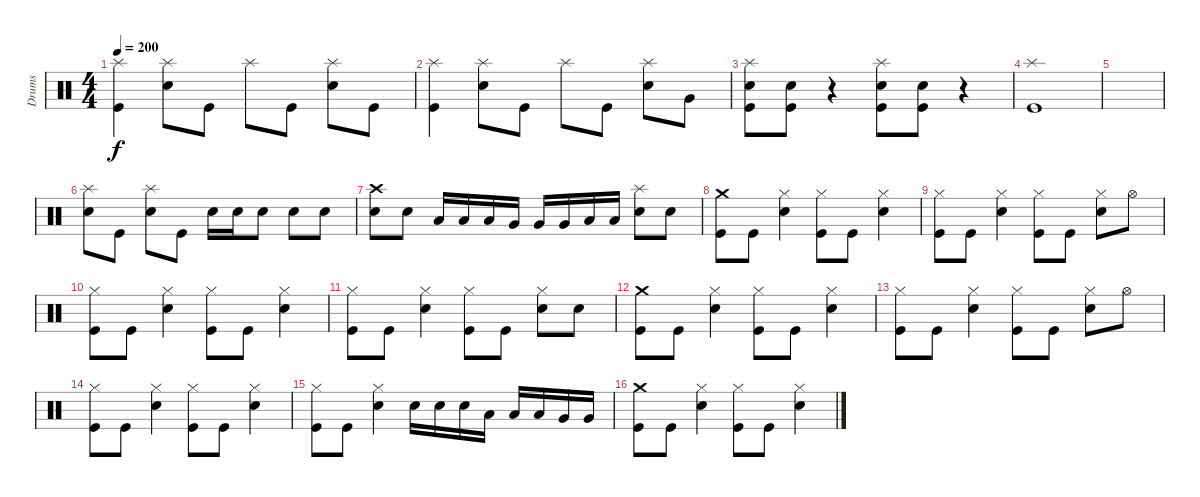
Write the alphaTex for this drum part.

\track ("Drums" "Drums") {instrument percussion}
\staff {score}
\articulation defaults
\ts (4 4)
\tempo 200
\clef neutral
\ks c
("Splash (hit)" "Kick (hit)").4{dy f} ("Splash (hit)" "Electric Snare (hit)").8 "Kick (hit)".8 "Splash (hit)".8 "Kick (hit)".8 ("Splash (hit)" "Electric Snare (hit)").8 "Kick (hit)".8 |
("Splash (hit)" "Kick (hit)").4 ("Splash (hit)" "Electric Snare (hit)").8 "Kick (hit)".8 "Splash (hit)".8 "Kick (hit)".8 ("Splash (hit)" "Electric Snare (hit)").8 "Very Low Tom (hit)".8 |
("Splash (hit)" "Electric Snare (hit)" "Kick (hit)").8 ("Electric Snare (hit)" "Kick (hit)").8 r.4 ("Splash (hit)" "Electric Snare (hit)" "Kick (hit)").8 ("Electric Snare (hit)" "Kick (hit)").8 r.4 |
("Splash (hit)" "Kick (hit)").1 |
|
("Splash (hit)" "Electric Snare (hit)").8 "Kick (hit)".8 ("Splash (hit)" "Electric Snare (hit)").8 "Kick (hit)".8 "Electric Snare (hit)".16 "Electric Snare (hit)".16 "Electric Snare (hit)".8 "Electric Snare (hit)".8 "Electric Snare (hit)".8 |
("Crash high (hit)" "Electric Snare (hit)").8 "Electric Snare (hit)".8 "Low Tom (hit)".16 "Low Tom (hit)".16 "Low Tom (hit)".16 "Very Low Tom (hit)".16 "Very Low Tom (hit)".16 "Very Low Tom (hit)".16 "Low Floor Tom (hit)".16 "Low Floor Tom (hit)".16 ("Splash (hit)" "Electric Snare (hit)").8 "Electric Snare (hit)".8 |
("Crash medium (hit)" "Kick (hit)").8 "Kick (hit)".8 ("Hi-Hat (closed)" "Electric Snare (hit)").4 ("Hi-Hat (closed)" "Kick (hit)").8 "Kick (hit)".8 ("Hi-Hat (closed)" "Electric Snare (hit)").4 |
("Hi-Hat (closed)" "Kick (hit)").8 "Kick (hit)".8 ("Hi-Hat (closed)" "Electric Snare (hit)").4 ("Hi-Hat (closed)" "Kick (hit)").8 "Kick (hit)".8 ("Hi-Hat (closed)" "Electric Snare (hit)").8 "Hi-Hat (open)".8 |
("Hi-Hat (closed)" "Kick (hit)").8 "Kick (hit)".8 ("Hi-Hat (closed)" "Electric Snare (hit)").4 ("Hi-Hat (closed)" "Kick (hit)").8 "Kick (hit)".8 ("Hi-Hat (closed)" "Electric Snare (hit)").4 |
("Hi-Hat (closed)" "Kick (hit)").8 "Kick (hit)".8 ("Hi-Hat (closed)" "Electric Snare (hit)").4 ("Hi-Hat (closed)" "Kick (hit)").8 "Kick (hit)".8 ("Hi-Hat (closed)" "Electric Snare (hit)").8 "Electric Snare (hit)".8 |
("Crash medium (hit)" "Kick (hit)").8 "Kick (hit)".8 ("Hi-Hat (closed)" "Electric Snare (hit)").4 ("Hi-Hat (closed)" "Kick (hit)").8 "Kick (hit)".8 ("Hi-Hat (closed)" "Electric Snare (hit)").4 |
("Hi-Hat (closed)" "Kick (hit)").8 "Kick (hit)".8 ("Hi-Hat (closed)" "Electric Snare (hit)").4 ("Hi-Hat (closed)" "Kick (hit)").8 "Kick (hit)".8 ("Hi-Hat (closed)" "Electric Snare (hit)").8 "Hi-Hat (open)".8 |
("Hi-Hat (closed)" "Kick (hit)").8 "Kick (hit)".8 ("Hi-Hat (closed)" "Electric Snare (hit)").4 ("Hi-Hat (closed)" "Kick (hit)").8 "Kick (hit)".8 ("Hi-Hat (closed)" "Electric Snare (hit)").4 |
("Hi-Hat (closed)" "Kick (hit)").8 "Kick (hit)".8 ("Hi-Hat (closed)" "Electric Snare (hit)").4 "Electric Snare (hit)".16 "Electric Snare (hit)".16 "Electric Snare (hit)".16 "Low Tom (hit)".16 "Low Tom (hit)".16 "Low Tom (hit)".16 "Very Low Tom (hit)".16 "Very Low Tom (hit)".16 |
("Crash medium (hit)" "Kick (hit)").8 "Kick (hit)".8 ("Hi-Hat (closed)" "Electric Snare (hit)").4 ("Hi-Hat (closed)" "Kick (hit)").8 "Kick (hit)".8 ("Hi-Hat (closed)" "Electric Snare (hit)").4
